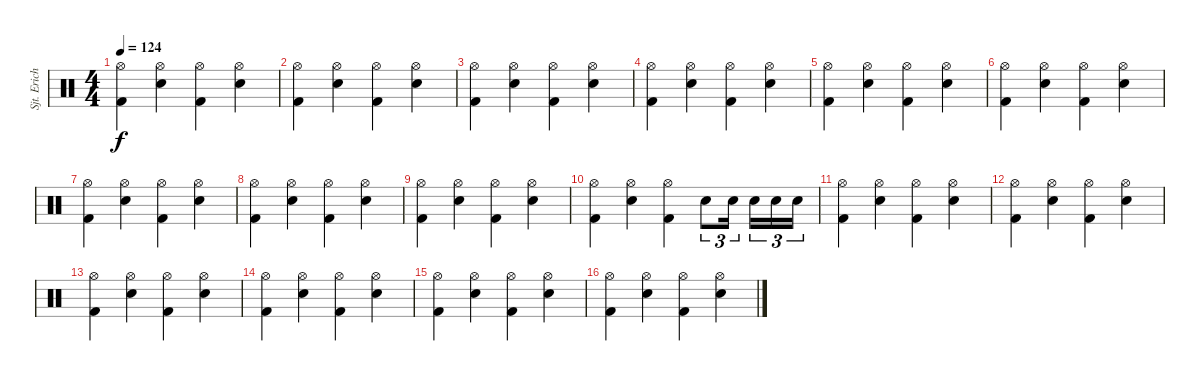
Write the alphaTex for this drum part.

\track ("Sjt. Erichsen" "Sjt. Erich") {instrument percussion}
\staff {score}
\articulation defaults
\ts (4 4)
\tempo 124
\clef neutral
\ks c
("Hi-Hat (open)" "Kick (hit) 2").4{dy f} ("Hi-Hat (open)" "Electric Snare (hit)").4 ("Hi-Hat (open)" "Kick (hit) 2").4 ("Hi-Hat (open)" "Electric Snare (hit)").4 |
("Hi-Hat (open)" "Kick (hit) 2").4 ("Hi-Hat (open)" "Electric Snare (hit)").4 ("Hi-Hat (open)" "Kick (hit) 2").4 ("Hi-Hat (open)" "Electric Snare (hit)").4 |
("Hi-Hat (open)" "Kick (hit) 2").4 ("Hi-Hat (open)" "Electric Snare (hit)").4 ("Hi-Hat (open)" "Kick (hit) 2").4 ("Hi-Hat (open)" "Electric Snare (hit)").4 |
("Hi-Hat (open)" "Kick (hit) 2").4 ("Hi-Hat (open)" "Electric Snare (hit)").4 ("Hi-Hat (open)" "Kick (hit) 2").4 ("Hi-Hat (open)" "Electric Snare (hit)").4 |
("Hi-Hat (open)" "Kick (hit) 2").4 ("Hi-Hat (open)" "Electric Snare (hit)").4 ("Hi-Hat (open)" "Kick (hit) 2").4 ("Hi-Hat (open)" "Electric Snare (hit)").4 |
("Hi-Hat (open)" "Kick (hit) 2").4 ("Hi-Hat (open)" "Electric Snare (hit)").4 ("Hi-Hat (open)" "Kick (hit) 2").4 ("Hi-Hat (open)" "Electric Snare (hit)").4 |
("Hi-Hat (open)" "Kick (hit) 2").4 ("Hi-Hat (open)" "Electric Snare (hit)").4 ("Hi-Hat (open)" "Kick (hit) 2").4 ("Hi-Hat (open)" "Electric Snare (hit)").4 |
("Hi-Hat (open)" "Kick (hit) 2").4 ("Hi-Hat (open)" "Electric Snare (hit)").4 ("Hi-Hat (open)" "Kick (hit) 2").4 ("Hi-Hat (open)" "Electric Snare (hit)").4 |
("Hi-Hat (open)" "Kick (hit) 2").4 ("Hi-Hat (open)" "Electric Snare (hit)").4 ("Hi-Hat (open)" "Kick (hit) 2").4 ("Hi-Hat (open)" "Electric Snare (hit)").4 |
("Hi-Hat (open)" "Kick (hit) 2").4 ("Hi-Hat (open)" "Electric Snare (hit)").4 ("Hi-Hat (open)" "Kick (hit) 2").4 "Electric Snare (hit)".8{tu (3 2)} "Electric Snare (hit)".16{tu (3 2) beam splitsecondary} "Electric Snare (hit)".16{tu (3 2)} "Electric Snare (hit)".16{tu (3 2)} "Electric Snare (hit)".16{tu (3 2)} |
("Hi-Hat (open)" "Kick (hit) 2").4 ("Hi-Hat (open)" "Electric Snare (hit)").4 ("Hi-Hat (open)" "Kick (hit) 2").4 ("Hi-Hat (open)" "Electric Snare (hit)").4 |
("Hi-Hat (open)" "Kick (hit) 2").4 ("Hi-Hat (open)" "Electric Snare (hit)").4 ("Hi-Hat (open)" "Kick (hit) 2").4 ("Hi-Hat (open)" "Electric Snare (hit)").4 |
("Hi-Hat (open)" "Kick (hit) 2").4 ("Hi-Hat (open)" "Electric Snare (hit)").4 ("Hi-Hat (open)" "Kick (hit) 2").4 ("Hi-Hat (open)" "Electric Snare (hit)").4 |
("Hi-Hat (open)" "Kick (hit) 2").4 ("Hi-Hat (open)" "Electric Snare (hit)").4 ("Hi-Hat (open)" "Kick (hit) 2").4 ("Hi-Hat (open)" "Electric Snare (hit)").4 |
("Hi-Hat (open)" "Kick (hit) 2").4 ("Hi-Hat (open)" "Electric Snare (hit)").4 ("Hi-Hat (open)" "Kick (hit) 2").4 ("Hi-Hat (open)" "Electric Snare (hit)").4 |
("Hi-Hat (open)" "Kick (hit) 2").4 ("Hi-Hat (open)" "Electric Snare (hit)").4 ("Hi-Hat (open)" "Kick (hit) 2").4 ("Hi-Hat (open)" "Electric Snare (hit)").4
